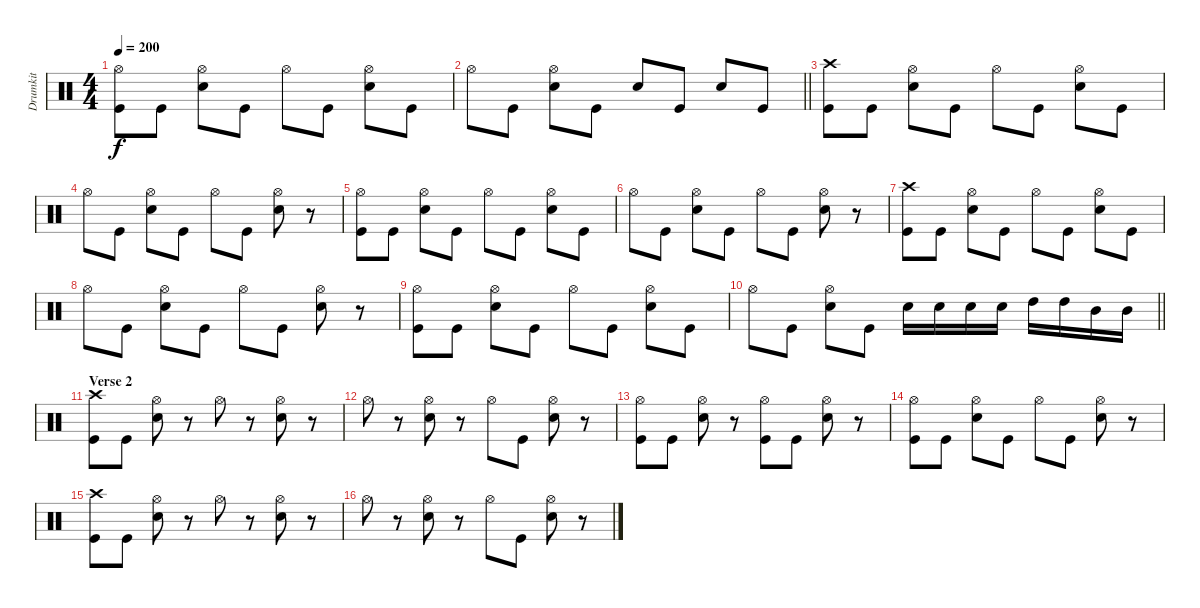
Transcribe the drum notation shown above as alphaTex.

\track ("Drumkit" "Drumkit") {instrument percussion}
\staff {score}
\articulation defaults
\ts (4 4)
\tempo 200
\clef neutral
\ks c
("Hi-Hat (open)" "Kick (hit)").8{dy f} "Kick (hit)".8 ("Hi-Hat (open)" "Snare (hit) 2").8 "Kick (hit)".8 "Hi-Hat (open)".8 "Kick (hit)".8 ("Snare (hit) 2" "Hi-Hat (open)").8 "Kick (hit)".8 |
\barLineRight lightlight "Hi-Hat (open)".8 "Kick (hit)".8
("Hi-Hat (open)" "Snare (hit) 2").8 "Kick (hit)".8 "Snare (hit) 2".8 "Kick (hit)".8 "Snare (hit) 2".8 "Kick (hit)".8 |
("Crash high (hit)" "Kick (hit)").8 "Kick (hit)".8 ("Hi-Hat (open)" "Snare (hit) 2").8 "Kick (hit)".8 "Hi-Hat (open)".8 "Kick (hit)".8 ("Snare (hit) 2" "Hi-Hat (open)").8 "Kick (hit)".8 |
"Hi-Hat (open)".8 "Kick (hit)".8 ("Hi-Hat (open)" "Snare (hit) 2").8 "Kick (hit)".8 "Hi-Hat (open)".8 "Kick (hit)".8 ("Snare (hit) 2" "Hi-Hat (open)").8 r.8 |
("Hi-Hat (open)" "Kick (hit)").8 "Kick (hit)".8 ("Hi-Hat (open)" "Snare (hit) 2").8 "Kick (hit)".8 "Hi-Hat (open)".8 "Kick (hit)".8 ("Snare (hit) 2" "Hi-Hat (open)").8 "Kick (hit)".8 |
"Hi-Hat (open)".8 "Kick (hit)".8 ("Hi-Hat (open)" "Snare (hit) 2").8 "Kick (hit)".8 "Hi-Hat (open)".8 "Kick (hit)".8 ("Snare (hit) 2" "Hi-Hat (open)").8 r.8 |
("Crash high (hit)" "Kick (hit)").8 "Kick (hit)".8 ("Hi-Hat (open)" "Snare (hit) 2").8 "Kick (hit)".8 "Hi-Hat (open)".8 "Kick (hit)".8 ("Snare (hit) 2" "Hi-Hat (open)").8 "Kick (hit)".8 |
"Hi-Hat (open)".8 "Kick (hit)".8 ("Hi-Hat (open)" "Snare (hit) 2").8 "Kick (hit)".8 "Hi-Hat (open)".8 "Kick (hit)".8 ("Snare (hit) 2" "Hi-Hat (open)").8 r.8 |
("Hi-Hat (open)" "Kick (hit)").8 "Kick (hit)".8 ("Hi-Hat (open)" "Snare (hit) 2").8 "Kick (hit)".8 "Hi-Hat (open)".8 "Kick (hit)".8 ("Snare (hit) 2" "Hi-Hat (open)").8 "Kick (hit)".8 |
\barLineRight lightlight "Hi-Hat (open)".8 "Kick (hit)".8
("Hi-Hat (open)" "Snare (hit) 2").8 "Kick (hit)".8 "Snare (hit) 2".16 "Snare (hit) 2".16 "Snare (hit) 2".16 "Snare (hit) 2".16 "High Tom (hit)".16 "High Tom (hit)".16 "Mid Tom (hit)".16 "Mid Tom (hit)".16 |
\section ("" "Verse 2")
("Crash high (hit)" "Kick (hit)").8 "Kick (hit)".8 ("Snare (hit) 2" "Hi-Hat (open)").8 r.8 "Hi-Hat (open)".8 r.8 ("Snare (hit) 2" "Hi-Hat (open)").8 r.8 |
"Hi-Hat (open)".8 r.8 ("Snare (hit) 2" "Hi-Hat (open)").8 r.8 "Hi-Hat (open)".8 "Kick (hit)".8 ("Snare (hit) 2" "Hi-Hat (open)").8 r.8 |
("Hi-Hat (open)" "Kick (hit)").8 "Kick (hit)".8 ("Snare (hit) 2" "Hi-Hat (open)").8 r.8 ("Kick (hit)" "Hi-Hat (open)").8 "Kick (hit)".8 ("Snare (hit) 2" "Hi-Hat (open)").8 r.8 |
("Kick (hit)" "Hi-Hat (open)").8 "Kick (hit)".8 ("Snare (hit) 2" "Hi-Hat (open)").8 "Kick (hit)".8 "Hi-Hat (open)".8 "Kick (hit)".8 ("Snare (hit) 2" "Hi-Hat (open)").8 r.8 |
("Crash high (hit)" "Kick (hit)").8 "Kick (hit)".8 ("Snare (hit) 2" "Hi-Hat (open)").8 r.8 "Hi-Hat (open)".8 r.8 ("Snare (hit) 2" "Hi-Hat (open)").8 r.8 |
"Hi-Hat (open)".8 r.8 ("Snare (hit) 2" "Hi-Hat (open)").8 r.8 "Hi-Hat (open)".8 "Kick (hit)".8 ("Snare (hit) 2" "Hi-Hat (open)").8 r.8
